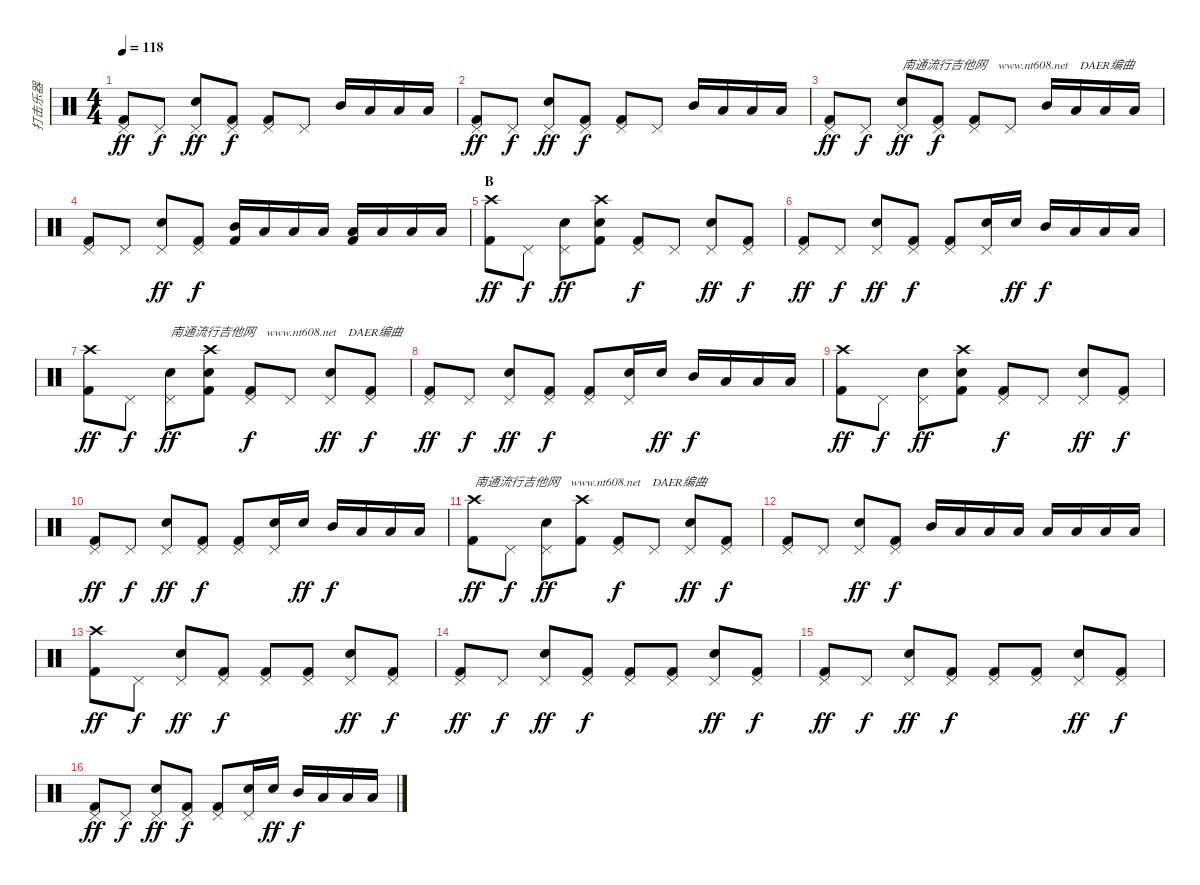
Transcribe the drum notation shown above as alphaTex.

\track ("打击乐器" "打击乐器") {instrument percussion}
\staff {score}
\articulation defaults
\ts (4 4)
\tempo 118
\clef neutral
\ks c
("Pedal Hi-Hat (hit)" "Kick (hit) 2").8{dy ff} "Pedal Hi-Hat (hit)".8{dy f} ("Pedal Hi-Hat (hit)" "Snare (hit) 2").8{dy ff} ("Pedal Hi-Hat (hit)" "Kick (hit) 2").8{dy f} ("Pedal Hi-Hat (hit)" "Kick (hit) 2").8 "Pedal Hi-Hat (hit)".8 "Mid Tom (hit)".16 "Low Tom (hit)".16 "Low Floor Tom (hit)".16 "Low Floor Tom (hit)".16 |
("Pedal Hi-Hat (hit)" "Kick (hit) 2").8{dy ff} "Pedal Hi-Hat (hit)".8{dy f} ("Pedal Hi-Hat (hit)" "Snare (hit) 2").8{dy ff} ("Pedal Hi-Hat (hit)" "Kick (hit) 2").8{dy f} ("Pedal Hi-Hat (hit)" "Kick (hit) 2").8 "Pedal Hi-Hat (hit)".8 "Mid Tom (hit)".16 "Low Tom (hit)".16 "Low Floor Tom (hit)".16 "Low Floor Tom (hit)".16 |
("Pedal Hi-Hat (hit)" "Kick (hit) 2").8{dy ff} "Pedal Hi-Hat (hit)".8{dy f} ("Pedal Hi-Hat (hit)" "Snare (hit) 2").8{txt "南通流行吉他网    www.nt608.net    DAER编曲" dy ff} ("Pedal Hi-Hat (hit)" "Kick (hit) 2").8{dy f} ("Pedal Hi-Hat (hit)" "Kick (hit) 2").8 "Pedal Hi-Hat (hit)".8 "Mid Tom (hit)".16 "Low Tom (hit)".16 "Low Floor Tom (hit)".16 "Low Floor Tom (hit)".16 |
("Pedal Hi-Hat (hit)" "Kick (hit) 2").8 "Pedal Hi-Hat (hit)".8 ("Pedal Hi-Hat (hit)" "Snare (hit) 2").8{dy ff} ("Pedal Hi-Hat (hit)" "Kick (hit) 2").8{dy f} ("Mid Tom (hit)" "Kick (hit) 2").16 "Low Tom (hit)".16 "Low Tom (hit)".16 "Low Tom (hit)".16 ("Low Floor Tom (hit)" "Kick (hit) 2").16 "Low Floor Tom (hit)".16 "Low Floor Tom (hit)".16 "Low Floor Tom (hit)".16 |
\section ("" "B")
("Crash high (hit)" "Kick (hit) 2").8{dy ff} "Pedal Hi-Hat (hit)".8{dy f} ("Pedal Hi-Hat (hit)" "Snare (hit) 2").8{dy ff} ("Crash high (hit)" "Snare (hit) 2" "Kick (hit) 2").8 ("Pedal Hi-Hat (hit)" "Kick (hit) 2").8{dy f} "Pedal Hi-Hat (hit)".8 ("Pedal Hi-Hat (hit)" "Snare (hit) 2").8{dy ff} ("Pedal Hi-Hat (hit)" "Kick (hit) 2").8{dy f} |
("Pedal Hi-Hat (hit)" "Kick (hit) 2").8{dy ff} "Pedal Hi-Hat (hit)".8{dy f} ("Pedal Hi-Hat (hit)" "Snare (hit) 2").8{dy ff} ("Pedal Hi-Hat (hit)" "Kick (hit) 2").8{dy f} ("Pedal Hi-Hat (hit)" "Kick (hit) 2").8 ("Pedal Hi-Hat (hit)" "Snare (hit) 2").16 "Snare (hit) 2".16{dy ff} "Mid Tom (hit)".16{dy f} "Low Tom (hit)".16 "Low Floor Tom (hit)".16 "Low Floor Tom (hit)".16 |
("Crash high (hit)" "Kick (hit) 2").8{dy ff} "Pedal Hi-Hat (hit)".8{dy f} ("Pedal Hi-Hat (hit)" "Snare (hit) 2").8{txt "南通流行吉他网    www.nt608.net    DAER编曲" dy ff} ("Crash high (hit)" "Snare (hit) 2" "Kick (hit) 2").8 ("Pedal Hi-Hat (hit)" "Kick (hit) 2").8{dy f} "Pedal Hi-Hat (hit)".8 ("Pedal Hi-Hat (hit)" "Snare (hit) 2").8{dy ff} ("Pedal Hi-Hat (hit)" "Kick (hit) 2").8{dy f} |
("Pedal Hi-Hat (hit)" "Kick (hit) 2").8{dy ff} "Pedal Hi-Hat (hit)".8{dy f} ("Pedal Hi-Hat (hit)" "Snare (hit) 2").8{dy ff} ("Pedal Hi-Hat (hit)" "Kick (hit) 2").8{dy f} ("Pedal Hi-Hat (hit)" "Kick (hit) 2").8 ("Pedal Hi-Hat (hit)" "Snare (hit) 2").16 "Snare (hit) 2".16{dy ff} "Mid Tom (hit)".16{dy f} "Low Tom (hit)".16 "Low Floor Tom (hit)".16 "Low Floor Tom (hit)".16 |
("Crash high (hit)" "Kick (hit) 2").8{dy ff} "Pedal Hi-Hat (hit)".8{dy f} ("Pedal Hi-Hat (hit)" "Snare (hit) 2").8{dy ff} ("Crash high (hit)" "Snare (hit) 2" "Kick (hit) 2").8 ("Pedal Hi-Hat (hit)" "Kick (hit) 2").8{dy f} "Pedal Hi-Hat (hit)".8 ("Pedal Hi-Hat (hit)" "Snare (hit) 2").8{dy ff} ("Pedal Hi-Hat (hit)" "Kick (hit) 2").8{dy f} |
("Pedal Hi-Hat (hit)" "Kick (hit) 2").8{dy ff} "Pedal Hi-Hat (hit)".8{dy f} ("Pedal Hi-Hat (hit)" "Snare (hit) 2").8{dy ff} ("Pedal Hi-Hat (hit)" "Kick (hit) 2").8{dy f} ("Pedal Hi-Hat (hit)" "Kick (hit) 2").8 ("Pedal Hi-Hat (hit)" "Snare (hit) 2").16 "Snare (hit) 2".16{dy ff} "Mid Tom (hit)".16{dy f} "Low Tom (hit)".16 "Low Floor Tom (hit)".16 "Low Floor Tom (hit)".16 |
("Crash high (hit)" "Kick (hit) 2").8{txt "南通流行吉他网    www.nt608.net    DAER编曲" dy ff} "Pedal Hi-Hat (hit)".8{dy f} ("Pedal Hi-Hat (hit)" "Snare (hit) 2").8{dy ff} ("Crash high (hit)" "Kick (hit) 2").8 ("Pedal Hi-Hat (hit)" "Kick (hit) 2").8{dy f} "Pedal Hi-Hat (hit)".8 ("Pedal Hi-Hat (hit)" "Snare (hit) 2").8{dy ff} ("Pedal Hi-Hat (hit)" "Kick (hit) 2").8{dy f} |
("Pedal Hi-Hat (hit)" "Kick (hit) 2").8 "Pedal Hi-Hat (hit)".8 ("Pedal Hi-Hat (hit)" "Snare (hit) 2").8{dy ff} ("Pedal Hi-Hat (hit)" "Kick (hit) 2").8{dy f} "Mid Tom (hit)".16 "Low Tom (hit)".16 "Low Tom (hit)".16 "Low Tom (hit)".16 "Low Floor Tom (hit)".16 "Low Floor Tom (hit)".16 "Low Floor Tom (hit)".16 "Low Floor Tom (hit)".16 |
("Crash high (hit)" "Kick (hit) 2").8{dy ff} "Pedal Hi-Hat (hit)".8{dy f} ("Pedal Hi-Hat (hit)" "Snare (hit) 2").8{dy ff} ("Pedal Hi-Hat (hit)" "Kick (hit) 2").8{dy f} ("Pedal Hi-Hat (hit)" "Kick (hit) 2").8 ("Pedal Hi-Hat (hit)" "Kick (hit) 2").8 ("Pedal Hi-Hat (hit)" "Snare (hit) 2").8{dy ff} ("Pedal Hi-Hat (hit)" "Kick (hit) 2").8{dy f} |
("Pedal Hi-Hat (hit)" "Kick (hit) 2").8{dy ff} "Pedal Hi-Hat (hit)".8{dy f} ("Pedal Hi-Hat (hit)" "Snare (hit) 2").8{dy ff} ("Pedal Hi-Hat (hit)" "Kick (hit) 2").8{dy f} ("Pedal Hi-Hat (hit)" "Kick (hit) 2").8 ("Pedal Hi-Hat (hit)" "Kick (hit) 2").8 ("Pedal Hi-Hat (hit)" "Snare (hit) 2").8{dy ff} ("Pedal Hi-Hat (hit)" "Kick (hit) 2").8{dy f} |
("Pedal Hi-Hat (hit)" "Kick (hit) 2").8{dy ff} "Pedal Hi-Hat (hit)".8{dy f} ("Pedal Hi-Hat (hit)" "Snare (hit) 2").8{dy ff} ("Pedal Hi-Hat (hit)" "Kick (hit) 2").8{dy f} ("Pedal Hi-Hat (hit)" "Kick (hit) 2").8 ("Pedal Hi-Hat (hit)" "Kick (hit) 2").8 ("Pedal Hi-Hat (hit)" "Snare (hit) 2").8{dy ff} ("Pedal Hi-Hat (hit)" "Kick (hit) 2").8{dy f} |
("Pedal Hi-Hat (hit)" "Kick (hit) 2").8{dy ff} "Pedal Hi-Hat (hit)".8{dy f} ("Pedal Hi-Hat (hit)" "Snare (hit) 2").8{dy ff} ("Pedal Hi-Hat (hit)" "Kick (hit) 2").8{dy f} ("Pedal Hi-Hat (hit)" "Kick (hit) 2").8 ("Pedal Hi-Hat (hit)" "Snare (hit) 2").16 "Snare (hit) 2".16{dy ff} "Mid Tom (hit)".16{dy f} "Low Tom (hit)".16 "Low Floor Tom (hit)".16 "Low Floor Tom (hit)".16
